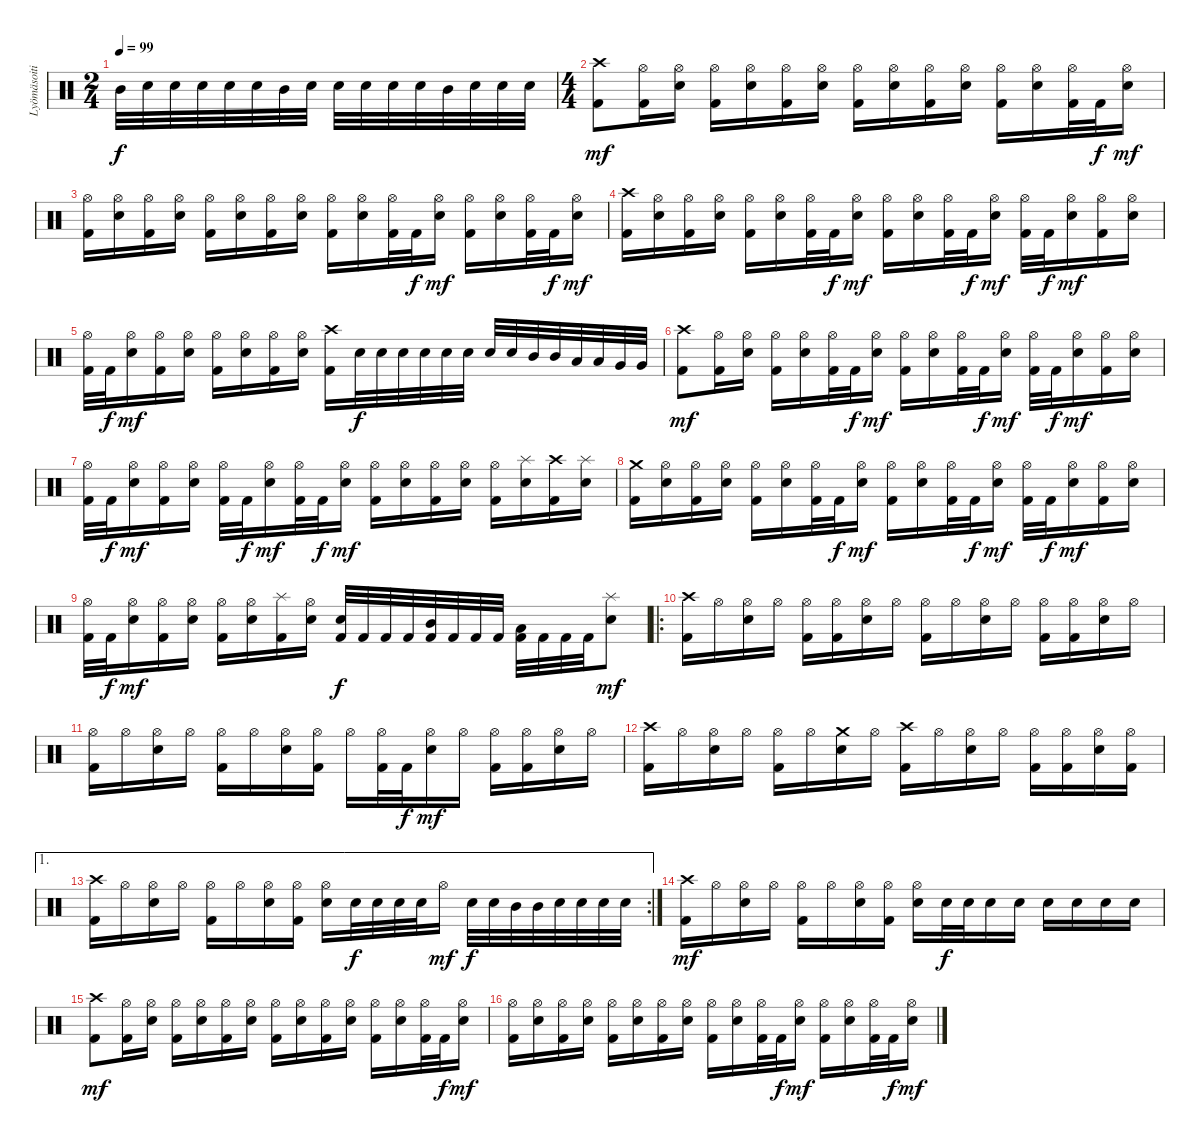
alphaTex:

\track ("Lyömäsoitin" "Lyömäsoiti") {instrument percussion}
\staff {score}
\articulation defaults
\ts (2 4)
\tempo 99
\clef neutral
\ks c "Mid Tom (hit)".32{dy f} "Electric Snare (hit)".32 "Electric Snare (hit)".32 "Electric Snare (hit)".32 "Electric Snare (hit)".32 "Electric Snare (hit)".32 "Mid Tom (hit)".32 "Electric Snare (hit)".32 "Electric Snare (hit)".32 "Electric Snare (hit)".32 "Electric Snare (hit)".32 "Electric Snare (hit)".32 "Mid Tom (hit)".32 "Electric Snare (hit)".32 "Electric Snare (hit)".32 "Electric Snare (hit)".32
|
\ts (4 4)
("Crash high (hit)" "Kick (hit) 2").8{dy mf} ("Hi-Hat (open)" "Kick (hit) 2").16 ("Electric Snare (hit)" "Hi-Hat (open)").16 ("Hi-Hat (open)" "Kick (hit) 2").16 ("Electric Snare (hit)" "Hi-Hat (open)").16 ("Hi-Hat (open)" "Kick (hit) 2").16 ("Electric Snare (hit)" "Hi-Hat (open)").16 ("Hi-Hat (open)" "Kick (hit) 2").16 ("Electric Snare (hit)" "Hi-Hat (open)").16 ("Hi-Hat (open)" "Kick (hit) 2").16 ("Electric Snare (hit)" "Hi-Hat (open)").16 ("Hi-Hat (open)" "Kick (hit) 2").16 ("Electric Snare (hit)" "Hi-Hat (open)").16 ("Hi-Hat (open)" "Kick (hit) 2").32 "Kick (hit) 2".32{dy f} ("Electric Snare (hit)" "Hi-Hat (open)").16{dy mf} |
("Hi-Hat (open)" "Kick (hit) 2").16 ("Electric Snare (hit)" "Hi-Hat (open)").16 ("Hi-Hat (open)" "Kick (hit) 2").16 ("Electric Snare (hit)" "Hi-Hat (open)").16 ("Hi-Hat (open)" "Kick (hit) 2").16 ("Electric Snare (hit)" "Hi-Hat (open)").16 ("Hi-Hat (open)" "Kick (hit) 2").16 ("Electric Snare (hit)" "Hi-Hat (open)").16 ("Hi-Hat (open)" "Kick (hit) 2").16 ("Electric Snare (hit)" "Hi-Hat (open)").16 ("Hi-Hat (open)" "Kick (hit) 2").32 "Kick (hit) 2".32{dy f} ("Electric Snare (hit)" "Hi-Hat (open)").16{dy mf} ("Hi-Hat (open)" "Kick (hit) 2").16 ("Electric Snare (hit)" "Hi-Hat (open)").16 ("Hi-Hat (open)" "Kick (hit) 2").32 "Kick (hit) 2".32{dy f} ("Electric Snare (hit)" "Hi-Hat (open)").16{dy mf} |
("Crash high (hit)" "Kick (hit) 2").16 ("Electric Snare (hit)" "Hi-Hat (open)").16 ("Hi-Hat (open)" "Kick (hit) 2").16 ("Electric Snare (hit)" "Hi-Hat (open)").16 ("Hi-Hat (open)" "Kick (hit) 2").16 ("Electric Snare (hit)" "Hi-Hat (open)").16 ("Hi-Hat (open)" "Kick (hit) 2").32 "Kick (hit) 2".32{dy f} ("Electric Snare (hit)" "Hi-Hat (open)").16{dy mf} ("Hi-Hat (open)" "Kick (hit) 2").16 ("Electric Snare (hit)" "Hi-Hat (open)").16 ("Hi-Hat (open)" "Kick (hit) 2").32 "Kick (hit) 2".32{dy f} ("Electric Snare (hit)" "Hi-Hat (open)").16{dy mf} ("Hi-Hat (open)" "Kick (hit) 2").32 "Kick (hit) 2".32{dy f} ("Electric Snare (hit)" "Hi-Hat (open)").16{dy mf} ("Hi-Hat (open)" "Kick (hit) 2").16 ("Electric Snare (hit)" "Hi-Hat (open)").16 |
("Hi-Hat (open)" "Kick (hit) 2").32 "Kick (hit) 2".32{dy f} ("Electric Snare (hit)" "Hi-Hat (open)").16{dy mf} ("Hi-Hat (open)" "Kick (hit) 2").16 ("Electric Snare (hit)" "Hi-Hat (open)").16 ("Hi-Hat (open)" "Kick (hit) 2").16 ("Electric Snare (hit)" "Hi-Hat (open)").16 ("Hi-Hat (open)" "Kick (hit) 2").16 ("Electric Snare (hit)" "Hi-Hat (open)").16 ("Crash high (hit)" "Kick (hit) 2").16 "Electric Snare (hit)".32{dy f} "Electric Snare (hit)".32 "Electric Snare (hit)".32 "Electric Snare (hit)".32 "Electric Snare (hit)".32 "Electric Snare (hit)".32 "Electric Snare (hit)".32 "Electric Snare (hit)".32 "Mid Tom (hit)".32 "Mid Tom (hit)".32 "Low Tom (hit)".32 "Low Tom (hit)".32 "Very Low Tom (hit)".32 "Very Low Tom (hit)".32 |
("Crash high (hit)" "Kick (hit) 2").8{dy mf} ("Hi-Hat (open)" "Kick (hit) 2").16 ("Electric Snare (hit)" "Hi-Hat (open)").16 ("Hi-Hat (open)" "Kick (hit) 2").16 ("Electric Snare (hit)" "Hi-Hat (open)").16 ("Hi-Hat (open)" "Kick (hit) 2").32 "Kick (hit) 2".32{dy f} ("Electric Snare (hit)" "Hi-Hat (open)").16{dy mf} ("Hi-Hat (open)" "Kick (hit) 2").16 ("Electric Snare (hit)" "Hi-Hat (open)").16 ("Hi-Hat (open)" "Kick (hit) 2").32 "Kick (hit) 2".32{dy f} ("Electric Snare (hit)" "Hi-Hat (open)").16{dy mf} ("Hi-Hat (open)" "Kick (hit) 2").32 "Kick (hit) 2".32{dy f} ("Electric Snare (hit)" "Hi-Hat (open)").16{dy mf} ("Hi-Hat (open)" "Kick (hit) 2").16 ("Electric Snare (hit)" "Hi-Hat (open)").16 |
("Hi-Hat (open)" "Kick (hit) 2").32 "Kick (hit) 2".32{dy f} ("Electric Snare (hit)" "Hi-Hat (open)").16{dy mf} ("Hi-Hat (open)" "Kick (hit) 2").16 ("Electric Snare (hit)" "Hi-Hat (open)").16 ("Hi-Hat (open)" "Kick (hit) 2").32 "Kick (hit) 2".32{dy f} ("Electric Snare (hit)" "Hi-Hat (open)").16{dy mf} ("Hi-Hat (open)" "Kick (hit) 2").32 "Kick (hit) 2".32{dy f} ("Electric Snare (hit)" "Hi-Hat (open)").16{dy mf} ("Hi-Hat (open)" "Kick (hit) 2").16 ("Electric Snare (hit)" "Hi-Hat (open)").16 ("Hi-Hat (open)" "Kick (hit) 2").16 ("Electric Snare (hit)" "Hi-Hat (open)").16 ("Hi-Hat (open)" "Kick (hit) 2").16 ("Electric Snare (hit)" "Splash (hit)").16 ("Crash high (hit)" "Kick (hit) 2").16 ("Electric Snare (hit)" "Splash (hit)").16 |
("Crash medium (hit)" "Kick (hit) 2").16 ("Electric Snare (hit)" "Hi-Hat (open)").16 ("Hi-Hat (open)" "Kick (hit) 2").16 ("Electric Snare (hit)" "Hi-Hat (open)").16 ("Hi-Hat (open)" "Kick (hit) 2").16 ("Electric Snare (hit)" "Hi-Hat (open)").16 ("Hi-Hat (open)" "Kick (hit) 2").32 "Kick (hit) 2".32{dy f} ("Electric Snare (hit)" "Hi-Hat (open)").16{dy mf} ("Hi-Hat (open)" "Kick (hit) 2").16 ("Electric Snare (hit)" "Hi-Hat (open)").16 ("Hi-Hat (open)" "Kick (hit) 2").32 "Kick (hit) 2".32{dy f} ("Electric Snare (hit)" "Hi-Hat (open)").16{dy mf} ("Hi-Hat (open)" "Kick (hit) 2").32 "Kick (hit) 2".32{dy f} ("Electric Snare (hit)" "Hi-Hat (open)").16{dy mf} ("Hi-Hat (open)" "Kick (hit) 2").16 ("Electric Snare (hit)" "Hi-Hat (open)").16 |
("Hi-Hat (open)" "Kick (hit) 2").32 "Kick (hit) 2".32{dy f} ("Electric Snare (hit)" "Hi-Hat (open)").16{dy mf} ("Hi-Hat (open)" "Kick (hit) 2").16 ("Electric Snare (hit)" "Hi-Hat (open)").16 ("Hi-Hat (open)" "Kick (hit) 2").16 ("Electric Snare (hit)" "Hi-Hat (open)").16 ("Splash (hit)" "Kick (hit) 2").16 ("Electric Snare (hit)" "Hi-Hat (open)").16 ("Electric Snare (hit)" "Kick (hit) 2").32{dy f} "Kick (hit) 2".32 "Kick (hit) 2".32 "Kick (hit) 2".32 ("Mid Tom (hit)" "Kick (hit) 2").32 "Kick (hit) 2".32 "Kick (hit) 2".32 "Kick (hit) 2".32 ("Low Tom (hit)" "Kick (hit) 2").32 "Kick (hit) 2".32 "Kick (hit) 2".32 "Kick (hit) 2".32 ("Electric Snare (hit)" "Splash (hit)").8{dy mf} |
\ro
("Crash high (hit)" "Kick (hit) 2").16 "Hi-Hat (open)".16 ("Electric Snare (hit)" "Hi-Hat (open)").16 "Hi-Hat (open)".16 ("Hi-Hat (open)" "Kick (hit) 2").16 ("Hi-Hat (open)" "Kick (hit) 2").16 ("Electric Snare (hit)" "Hi-Hat (open)").16 "Hi-Hat (open)".16 ("Hi-Hat (open)" "Kick (hit) 2").16 "Hi-Hat (open)".16 ("Electric Snare (hit)" "Hi-Hat (open)").16 "Hi-Hat (open)".16 ("Hi-Hat (open)" "Kick (hit) 2").16 ("Hi-Hat (open)" "Kick (hit) 2").16 ("Electric Snare (hit)" "Hi-Hat (open)").16 "Hi-Hat (open)".16 |
("Hi-Hat (open)" "Kick (hit) 2").16 "Hi-Hat (open)".16 ("Electric Snare (hit)" "Hi-Hat (open)").16 "Hi-Hat (open)".16 ("Hi-Hat (open)" "Kick (hit) 2").16 "Hi-Hat (open)".16 ("Electric Snare (hit)" "Hi-Hat (open)").16 ("Hi-Hat (open)" "Kick (hit) 2").16 "Hi-Hat (open)".16 ("Hi-Hat (open)" "Kick (hit) 2").32 "Kick (hit) 2".32{dy f} ("Electric Snare (hit)" "Hi-Hat (open)").16{dy mf} "Hi-Hat (open)".16 ("Hi-Hat (open)" "Kick (hit) 2").16 ("Hi-Hat (open)" "Kick (hit) 2").16 ("Electric Snare (hit)" "Hi-Hat (open)").16 "Hi-Hat (open)".16 |
("Crash high (hit)" "Kick (hit) 2").16 "Hi-Hat (open)".16 ("Electric Snare (hit)" "Hi-Hat (open)").16 "Hi-Hat (open)".16 ("Hi-Hat (open)" "Kick (hit) 2").16 "Hi-Hat (open)".16 ("Electric Snare (hit)" "Crash medium (hit)").16 "Hi-Hat (open)".16 ("Crash high (hit)" "Kick (hit) 2").16 "Hi-Hat (open)".16 ("Electric Snare (hit)" "Hi-Hat (open)").16 "Hi-Hat (open)".16 ("Hi-Hat (open)" "Kick (hit) 2").16 ("Hi-Hat (open)" "Kick (hit) 2").16 ("Electric Snare (hit)" "Hi-Hat (open)").16 ("Hi-Hat (open)" "Kick (hit) 2").16 |
\ae 1
\rc 2
("Crash high (hit)" "Kick (hit) 2").16 "Hi-Hat (open)".16 ("Electric Snare (hit)" "Hi-Hat (open)").16 "Hi-Hat (open)".16 ("Hi-Hat (open)" "Kick (hit) 2").16 "Hi-Hat (open)".16 ("Electric Snare (hit)" "Hi-Hat (open)").16 ("Hi-Hat (open)" "Kick (hit) 2").16 ("Electric Snare (hit)" "Hi-Hat (open)").16 "Electric Snare (hit)".32{dy f} "Electric Snare (hit)".32 "Electric Snare (hit)".32 "Electric Snare (hit)".32 "Hi-Hat (open)".16{dy mf} "Electric Snare (hit)".32{dy f} "Electric Snare (hit)".32 "Mid Tom (hit)".32 "Mid Tom (hit)".32 "Electric Snare (hit)".32 "Electric Snare (hit)".32 "Electric Snare (hit)".32 "Electric Snare (hit)".32 |
("Crash high (hit)" "Kick (hit) 2").16{dy mf} "Hi-Hat (open)".16 ("Electric Snare (hit)" "Hi-Hat (open)").16 "Hi-Hat (open)".16 ("Hi-Hat (open)" "Kick (hit) 2").16 "Hi-Hat (open)".16 ("Electric Snare (hit)" "Hi-Hat (open)").16 ("Hi-Hat (open)" "Kick (hit) 2").16 ("Electric Snare (hit)" "Hi-Hat (open)").16 "Electric Snare (hit)".32{dy f} "Electric Snare (hit)".32 "Electric Snare (hit)".16 "Electric Snare (hit)".16 "Electric Snare (hit)".16 "Electric Snare (hit)".16 "Electric Snare (hit)".16 "Electric Snare (hit)".16 |
("Crash high (hit)" "Kick (hit) 2").8{dy mf} ("Hi-Hat (open)" "Kick (hit) 2").16 ("Electric Snare (hit)" "Hi-Hat (open)").16 ("Hi-Hat (open)" "Kick (hit) 2").16 ("Electric Snare (hit)" "Hi-Hat (open)").16 ("Hi-Hat (open)" "Kick (hit) 2").16 ("Electric Snare (hit)" "Hi-Hat (open)").16 ("Hi-Hat (open)" "Kick (hit) 2").16 ("Electric Snare (hit)" "Hi-Hat (open)").16 ("Hi-Hat (open)" "Kick (hit) 2").16 ("Electric Snare (hit)" "Hi-Hat (open)").16 ("Hi-Hat (open)" "Kick (hit) 2").16 ("Electric Snare (hit)" "Hi-Hat (open)").16 ("Hi-Hat (open)" "Kick (hit) 2").32 "Kick (hit) 2".32{dy f} ("Electric Snare (hit)" "Hi-Hat (open)").16{dy mf} |
("Hi-Hat (open)" "Kick (hit) 2").16 ("Electric Snare (hit)" "Hi-Hat (open)").16 ("Hi-Hat (open)" "Kick (hit) 2").16 ("Electric Snare (hit)" "Hi-Hat (open)").16 ("Hi-Hat (open)" "Kick (hit) 2").16 ("Electric Snare (hit)" "Hi-Hat (open)").16 ("Hi-Hat (open)" "Kick (hit) 2").16 ("Electric Snare (hit)" "Hi-Hat (open)").16 ("Hi-Hat (open)" "Kick (hit) 2").16 ("Electric Snare (hit)" "Hi-Hat (open)").16 ("Hi-Hat (open)" "Kick (hit) 2").32 "Kick (hit) 2".32{dy f} ("Electric Snare (hit)" "Hi-Hat (open)").16{dy mf} ("Hi-Hat (open)" "Kick (hit) 2").16 ("Electric Snare (hit)" "Hi-Hat (open)").16 ("Hi-Hat (open)" "Kick (hit) 2").32 "Kick (hit) 2".32{dy f} ("Electric Snare (hit)" "Hi-Hat (open)").16{dy mf}
